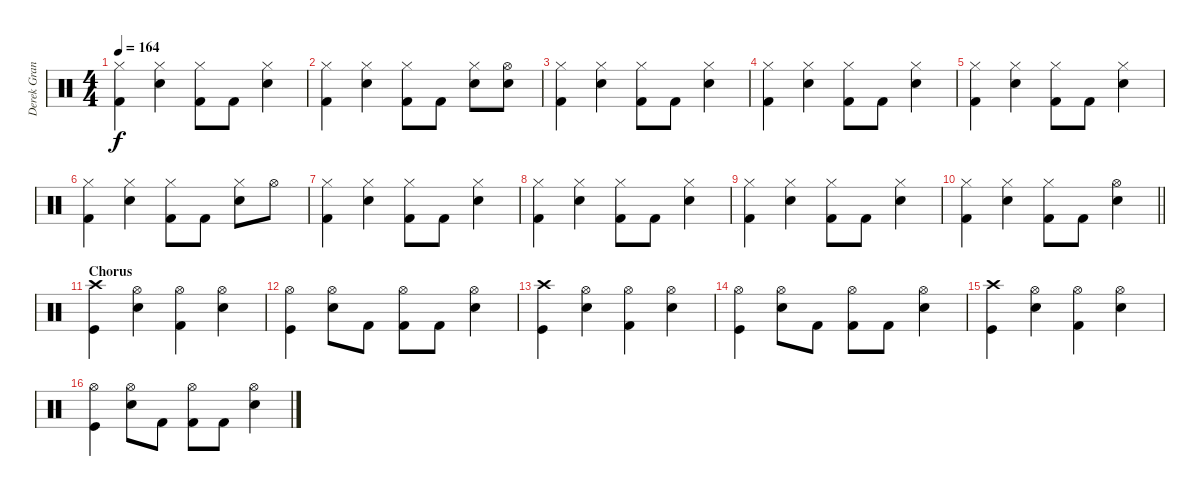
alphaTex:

\track ("Derek Grant - Drums" "Derek Gran") {instrument percussion}
\staff {score}
\articulation defaults
\ts (4 4)
\tempo 164
\clef neutral
\ks c
("Hi-Hat (closed)" "Kick (hit) 2").4{dy f} ("Hi-Hat (closed)" "Snare (hit) 2").4 ("Hi-Hat (closed)" "Kick (hit) 2").8 "Kick (hit) 2".8 ("Hi-Hat (closed)" "Snare (hit) 2").4 |
("Hi-Hat (closed)" "Kick (hit) 2").4 ("Hi-Hat (closed)" "Snare (hit) 2").4 ("Hi-Hat (closed)" "Kick (hit) 2").8 "Kick (hit) 2".8 ("Hi-Hat (closed)" "Snare (hit) 2").8 ("Hi-Hat (open)" "Snare (hit) 2").8 |
("Hi-Hat (closed)" "Kick (hit) 2").4 ("Hi-Hat (closed)" "Snare (hit) 2").4 ("Hi-Hat (closed)" "Kick (hit) 2").8 "Kick (hit) 2".8 ("Hi-Hat (closed)" "Snare (hit) 2").4 |
("Hi-Hat (closed)" "Kick (hit) 2").4 ("Hi-Hat (closed)" "Snare (hit) 2").4 ("Hi-Hat (closed)" "Kick (hit) 2").8 "Kick (hit) 2".8 ("Hi-Hat (closed)" "Snare (hit) 2").4 |
("Hi-Hat (closed)" "Kick (hit) 2").4 ("Hi-Hat (closed)" "Snare (hit) 2").4 ("Hi-Hat (closed)" "Kick (hit) 2").8 "Kick (hit) 2".8 ("Hi-Hat (closed)" "Snare (hit) 2").4 |
("Hi-Hat (closed)" "Kick (hit) 2").4 ("Hi-Hat (closed)" "Snare (hit) 2").4 ("Hi-Hat (closed)" "Kick (hit) 2").8 "Kick (hit) 2".8 ("Hi-Hat (closed)" "Snare (hit) 2").8 "Hi-Hat (open)".8 |
("Hi-Hat (closed)" "Kick (hit) 2").4 ("Hi-Hat (closed)" "Snare (hit) 2").4 ("Hi-Hat (closed)" "Kick (hit) 2").8 "Kick (hit) 2".8 ("Hi-Hat (closed)" "Snare (hit) 2").4 |
("Hi-Hat (closed)" "Kick (hit) 2").4 ("Hi-Hat (closed)" "Snare (hit) 2").4 ("Hi-Hat (closed)" "Kick (hit) 2").8 "Kick (hit) 2".8 ("Hi-Hat (closed)" "Snare (hit) 2").4 |
("Hi-Hat (closed)" "Kick (hit) 2").4 ("Hi-Hat (closed)" "Snare (hit) 2").4 ("Hi-Hat (closed)" "Kick (hit) 2").8 "Kick (hit) 2".8 ("Hi-Hat (closed)" "Snare (hit) 2").4 |
\barLineRight lightlight
("Hi-Hat (closed)" "Kick (hit) 2").4 ("Hi-Hat (closed)" "Snare (hit) 2").4 ("Hi-Hat (closed)" "Kick (hit) 2").8 "Kick (hit) 2".8 ("Hi-Hat (open)" "Snare (hit) 2").4 |
\section ("" "Chorus")
("Crash high (hit)" "Kick (hit)").4 ("Snare (hit) 2" "Hi-Hat (open)").4 ("Kick (hit) 2" "Hi-Hat (open)").4 ("Snare (hit) 2" "Hi-Hat (open)").4 |
("Hi-Hat (open)" "Kick (hit)").4 ("Snare (hit) 2" "Hi-Hat (open)").8 "Kick (hit) 2".8 ("Kick (hit) 2" "Hi-Hat (open)").8 "Kick (hit) 2".8 ("Snare (hit) 2" "Hi-Hat (open)").4 |
("Crash high (hit)" "Kick (hit)").4 ("Snare (hit) 2" "Hi-Hat (open)").4 ("Kick (hit) 2" "Hi-Hat (open)").4 ("Snare (hit) 2" "Hi-Hat (open)").4 |
("Hi-Hat (open)" "Kick (hit)").4 ("Snare (hit) 2" "Hi-Hat (open)").8 "Kick (hit) 2".8 ("Kick (hit) 2" "Hi-Hat (open)").8 "Kick (hit) 2".8 ("Snare (hit) 2" "Hi-Hat (open)").4 |
("Crash high (hit)" "Kick (hit)").4 ("Snare (hit) 2" "Hi-Hat (open)").4 ("Kick (hit) 2" "Hi-Hat (open)").4 ("Snare (hit) 2" "Hi-Hat (open)").4 |
("Hi-Hat (open)" "Kick (hit)").4 ("Snare (hit) 2" "Hi-Hat (open)").8 "Kick (hit) 2".8 ("Kick (hit) 2" "Hi-Hat (open)").8 "Kick (hit) 2".8 ("Snare (hit) 2" "Hi-Hat (open)").4
